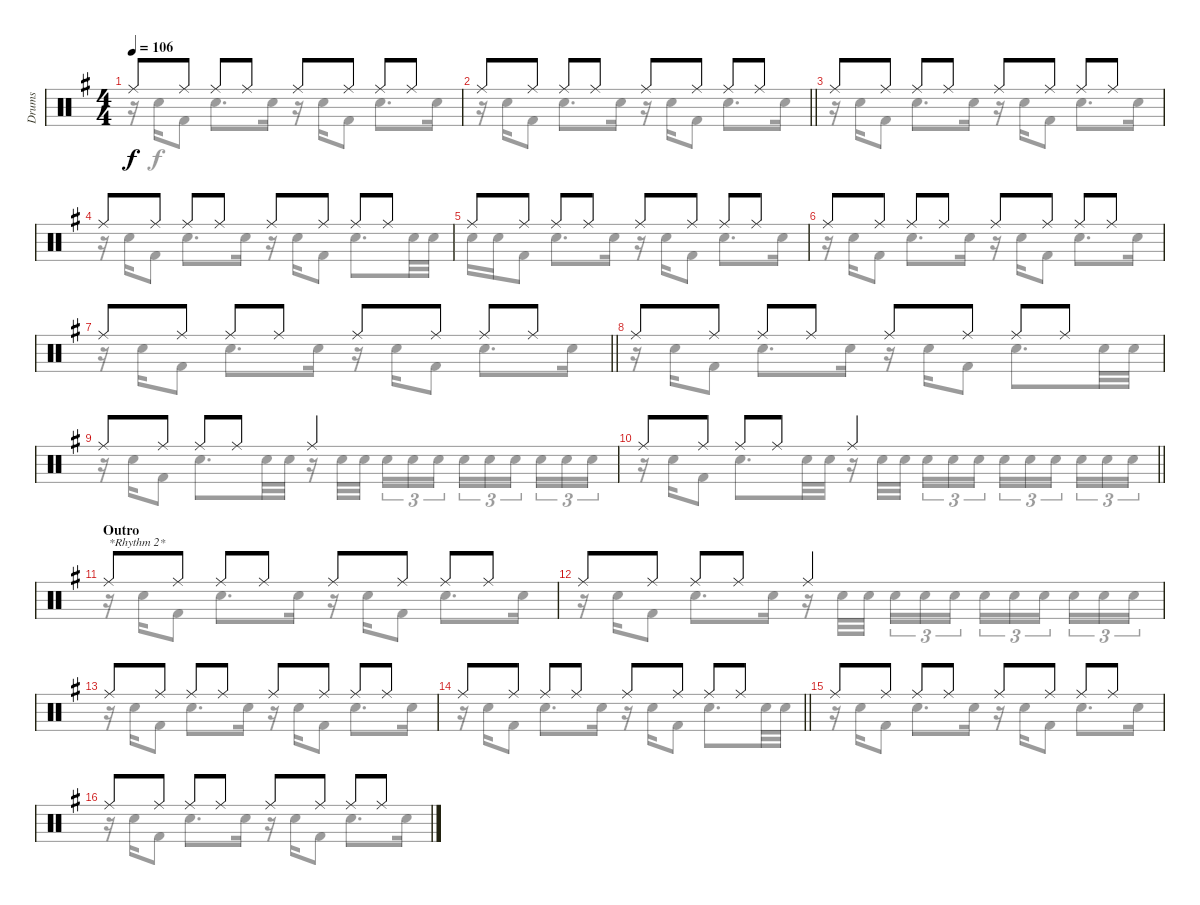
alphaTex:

\track ("Drums" "Drums") {instrument percussion}
\staff {score}
\articulation defaults
\voice
\ts (4 4)
\tempo 106
\clef neutral
\ks eminor "Ride (middle)".8{dy f} "Ride (middle)".8 "Ride (middle)".8 "Ride (middle)".8 "Ride (middle)".8 "Ride (middle)".8 "Ride (middle)".8 "Ride (middle)".8
|
\barLineRight lightlight "Ride (middle)".8 "Ride (middle)".8 "Ride (middle)".8 "Ride (middle)".8 "Ride (middle)".8 "Ride (middle)".8 "Ride (middle)".8 "Ride (middle)".8
|
"Ride (middle)".8 "Ride (middle)".8 "Ride (middle)".8 "Ride (middle)".8 "Ride (middle)".8 "Ride (middle)".8 "Ride (middle)".8 "Ride (middle)".8 |
"Ride (middle)".8 "Ride (middle)".8 "Ride (middle)".8 "Ride (middle)".8 "Ride (middle)".8 "Ride (middle)".8 "Ride (middle)".8 "Ride (middle)".8 |
"Ride (middle)".8 "Ride (middle)".8 "Ride (middle)".8 "Ride (middle)".8 "Ride (middle)".8 "Ride (middle)".8 "Ride (middle)".8 "Ride (middle)".8 |
"Ride (middle)".8 "Ride (middle)".8 "Ride (middle)".8 "Ride (middle)".8 "Ride (middle)".8 "Ride (middle)".8 "Ride (middle)".8 "Ride (middle)".8 |
\barLineRight lightlight "Ride (middle)".8 "Ride (middle)".8 "Ride (middle)".8 "Ride (middle)".8 "Ride (middle)".8 "Ride (middle)".8 "Ride (middle)".8 "Ride (middle)".8
|
"Ride (middle)".8 "Ride (middle)".8 "Ride (middle)".8 "Ride (middle)".8 "Ride (middle)".8 "Ride (middle)".8 "Ride (middle)".8 "Ride (middle)".8 |
"Ride (middle)".8 "Ride (middle)".8 "Ride (middle)".8 "Ride (middle)".8 "Ride (middle)".2 |
\barLineRight lightlight "Ride (middle)".8 "Ride (middle)".8 "Ride (middle)".8 "Ride (middle)".8 "Ride (middle)".2
|
\section ("" "Outro")
"Ride (middle)".8{txt "*Rhythm 2*"} "Ride (middle)".8 "Ride (middle)".8 "Ride (middle)".8 "Ride (middle)".8 "Ride (middle)".8 "Ride (middle)".8 "Ride (middle)".8 |
"Ride (middle)".8 "Ride (middle)".8 "Ride (middle)".8 "Ride (middle)".8 "Ride (middle)".2 |
"Ride (middle)".8 "Ride (middle)".8 "Ride (middle)".8 "Ride (middle)".8 "Ride (middle)".8 "Ride (middle)".8 "Ride (middle)".8 "Ride (middle)".8 |
\barLineRight lightlight "Ride (middle)".8 "Ride (middle)".8 "Ride (middle)".8 "Ride (middle)".8 "Ride (middle)".8 "Ride (middle)".8 "Ride (middle)".8 "Ride (middle)".8
|
"Ride (middle)".8 "Ride (middle)".8 "Ride (middle)".8 "Ride (middle)".8 "Ride (middle)".8 "Ride (middle)".8 "Ride (middle)".8 "Ride (middle)".8 |
"Ride (middle)".8 "Ride (middle)".8 "Ride (middle)".8 "Ride (middle)".8 "Ride (middle)".8 "Ride (middle)".8 "Ride (middle)".8 "Ride (middle)".8
\voice
\clef neutral
\ottava regular
\simile none
\ks eminor
r.16{dy f} "Electric Snare (hit)".16 "Kick (hit) 2".8 "Electric Snare (hit)".8{d} "Electric Snare (hit)".16 r.16 "Electric Snare (hit)".16 "Kick (hit) 2".8 "Electric Snare (hit)".8{d} "Electric Snare (hit)".16 |
\barLineRight lightlight
r.16 "Electric Snare (hit)".16 "Kick (hit) 2".8 "Electric Snare (hit)".8{d} "Electric Snare (hit)".16 r.16 "Electric Snare (hit)".16 "Kick (hit) 2".8 "Electric Snare (hit)".8{d} "Electric Snare (hit)".16 |
r.16 "Electric Snare (hit)".16 "Kick (hit) 2".8 "Electric Snare (hit)".8{d} "Electric Snare (hit)".16 r.16 "Electric Snare (hit)".16 "Kick (hit) 2".8 "Electric Snare (hit)".8{d} "Electric Snare (hit)".16 |
r.16 "Electric Snare (hit)".16 "Kick (hit) 2".8 "Electric Snare (hit)".8{d} "Electric Snare (hit)".16 r.16 "Electric Snare (hit)".16 "Kick (hit) 2".8 "Electric Snare (hit)".8{d} "Electric Snare (hit)".32 "Electric Snare (hit)".32 |
"Electric Snare (hit)".16 "Electric Snare (hit)".16 "Kick (hit) 2".8 "Electric Snare (hit)".8{d} "Electric Snare (hit)".16 r.16 "Electric Snare (hit)".16 "Kick (hit) 2".8 "Electric Snare (hit)".8{d} "Electric Snare (hit)".16 |
r.16 "Electric Snare (hit)".16 "Kick (hit) 2".8 "Electric Snare (hit)".8{d} "Electric Snare (hit)".16 r.16 "Electric Snare (hit)".16 "Kick (hit) 2".8 "Electric Snare (hit)".8{d} "Electric Snare (hit)".16 |
\barLineRight lightlight
r.16 "Electric Snare (hit)".16 "Kick (hit) 2".8 "Electric Snare (hit)".8{d} "Electric Snare (hit)".16 r.16 "Electric Snare (hit)".16 "Kick (hit) 2".8 "Electric Snare (hit)".8{d} "Electric Snare (hit)".16 |
r.16 "Electric Snare (hit)".16 "Kick (hit) 2".8 "Electric Snare (hit)".8{d} "Electric Snare (hit)".16 r.16 "Electric Snare (hit)".16 "Kick (hit) 2".8 "Electric Snare (hit)".8{d} "Electric Snare (hit)".32 "Electric Snare (hit)".32 |
r.16 "Electric Snare (hit)".16 "Kick (hit) 2".8 "Electric Snare (hit)".8{d} "Electric Snare (hit)".32 "Electric Snare (hit)".32 r.16 "Electric Snare (hit)".32 "Electric Snare (hit)".32{beam splitsecondary} "Electric Snare (hit)".16{tu (3 2)} "Electric Snare (hit)".16{tu (3 2)} "Electric Snare (hit)".16{tu (3 2)} "Electric Snare (hit)".16{tu (3 2)} "Electric Snare (hit)".16{tu (3 2)} "Electric Snare (hit)".16{tu (3 2) beam splitsecondary} "Electric Snare (hit)".16{tu (3 2)} "Electric Snare (hit)".16{tu (3 2)} "Electric Snare (hit)".16{tu (3 2)} |
\barLineRight lightlight
r.16 "Electric Snare (hit)".16 "Kick (hit) 2".8 "Electric Snare (hit)".8{d} "Electric Snare (hit)".32 "Electric Snare (hit)".32 r.16 "Electric Snare (hit)".32 "Electric Snare (hit)".32{beam splitsecondary} "Electric Snare (hit)".16{tu (3 2)} "Electric Snare (hit)".16{tu (3 2)} "Electric Snare (hit)".16{tu (3 2)} "Electric Snare (hit)".16{tu (3 2)} "Electric Snare (hit)".16{tu (3 2)} "Electric Snare (hit)".16{tu (3 2) beam splitsecondary} "Electric Snare (hit)".16{tu (3 2)} "Electric Snare (hit)".16{tu (3 2)} "Electric Snare (hit)".16{tu (3 2)} |
r.16 "Electric Snare (hit)".16 "Kick (hit) 2".8 "Electric Snare (hit)".8{d} "Electric Snare (hit)".16 r.16 "Electric Snare (hit)".16 "Kick (hit) 2".8 "Electric Snare (hit)".8{d} "Electric Snare (hit)".16 |
r.16 "Electric Snare (hit)".16 "Kick (hit) 2".8 "Electric Snare (hit)".8{d} "Electric Snare (hit)".16 r.16 "Electric Snare (hit)".32 "Electric Snare (hit)".32{beam splitsecondary} "Electric Snare (hit)".16{tu (3 2)} "Electric Snare (hit)".16{tu (3 2)} "Electric Snare (hit)".16{tu (3 2)} "Electric Snare (hit)".16{tu (3 2)} "Electric Snare (hit)".16{tu (3 2)} "Electric Snare (hit)".16{tu (3 2) beam splitsecondary} "Electric Snare (hit)".16{tu (3 2)} "Electric Snare (hit)".16{tu (3 2)} "Electric Snare (hit)".16{tu (3 2)} |
r.16 "Electric Snare (hit)".16 "Kick (hit) 2".8 "Electric Snare (hit)".8{d} "Electric Snare (hit)".16 r.16 "Electric Snare (hit)".16 "Kick (hit) 2".8 "Electric Snare (hit)".8{d} "Electric Snare (hit)".16 |
\barLineRight lightlight
r.16 "Electric Snare (hit)".16 "Kick (hit) 2".8 "Electric Snare (hit)".8{d} "Electric Snare (hit)".16 r.16 "Electric Snare (hit)".16 "Kick (hit) 2".8 "Electric Snare (hit)".8{d} "Electric Snare (hit)".32 "Electric Snare (hit)".32 |
r.16 "Electric Snare (hit)".16 "Kick (hit) 2".8 "Electric Snare (hit)".8{d} "Electric Snare (hit)".16 r.16 "Electric Snare (hit)".16 "Kick (hit) 2".8 "Electric Snare (hit)".8{d} "Electric Snare (hit)".16 |
r.16 "Electric Snare (hit)".16 "Kick (hit) 2".8 "Electric Snare (hit)".8{d} "Electric Snare (hit)".16 r.16 "Electric Snare (hit)".16 "Kick (hit) 2".8 "Electric Snare (hit)".8{d} "Electric Snare (hit)".16
